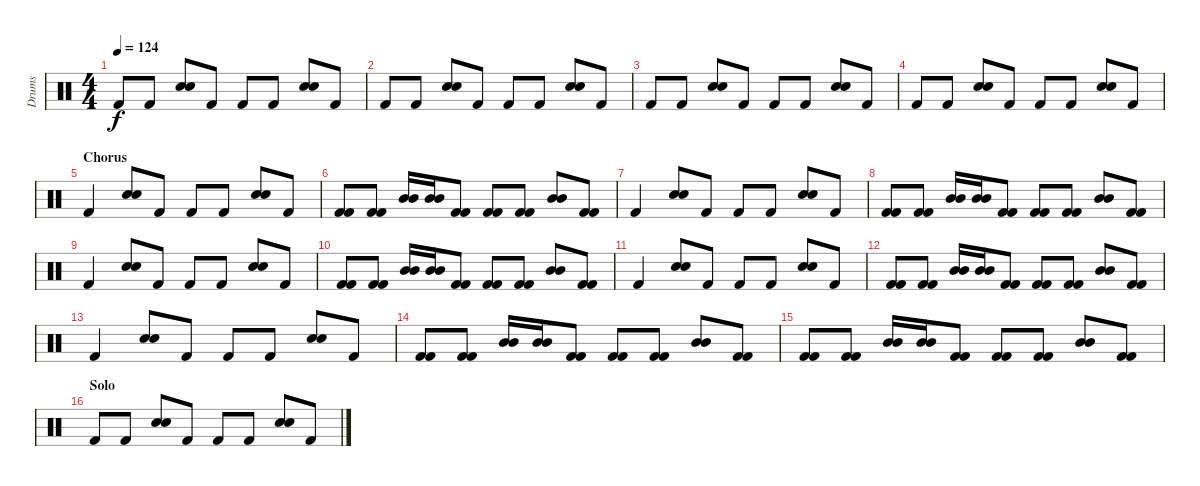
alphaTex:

\track ("Drums" "Drums") {instrument percussion}
\staff {score}
\articulation defaults
\ts (4 4)
\tempo 124
\clef neutral
\ks c "Kick (hit) 2".8{dy f} "Kick (hit) 2".8
("Snare (hit) 2" "Snare (hit) 2").8 "Kick (hit) 2".8 "Kick (hit) 2".8 "Kick (hit) 2".8 ("Snare (hit) 2" "Snare (hit) 2").8 "Kick (hit) 2".8 |
"Kick (hit) 2".8 "Kick (hit) 2".8 ("Snare (hit) 2" "Snare (hit) 2").8 "Kick (hit) 2".8 "Kick (hit) 2".8 "Kick (hit) 2".8 ("Snare (hit) 2" "Snare (hit) 2").8 "Kick (hit) 2".8 |
"Kick (hit) 2".8 "Kick (hit) 2".8 ("Snare (hit) 2" "Snare (hit) 2").8 "Kick (hit) 2".8 "Kick (hit) 2".8 "Kick (hit) 2".8 ("Snare (hit) 2" "Snare (hit) 2").8 "Kick (hit) 2".8 |
"Kick (hit) 2".8 "Kick (hit) 2".8 ("Snare (hit) 2" "Snare (hit) 2").8 "Kick (hit) 2".8 "Kick (hit) 2".8 "Kick (hit) 2".8 ("Snare (hit) 2" "Snare (hit) 2").8 "Kick (hit) 2".8 |
\section ("" "Chorus")
"Kick (hit) 2".4 ("Snare (hit) 2" "Snare (hit) 2").8 "Kick (hit) 2".8 "Kick (hit) 2".8 "Kick (hit) 2".8 ("Snare (hit) 2" "Snare (hit) 2").8 "Kick (hit) 2".8 |
("Kick (hit) 2" "Kick (hit) 2").8 ("Kick (hit) 2" "Kick (hit) 2").8 ("Mid Tom (hit)" "Mid Tom (hit)").16 ("Mid Tom (hit)" "Mid Tom (hit)").16 ("Kick (hit) 2" "Kick (hit) 2").8 ("Kick (hit) 2" "Kick (hit) 2").8 ("Kick (hit) 2" "Kick (hit) 2").8 ("Mid Tom (hit)" "Mid Tom (hit)").8 ("Kick (hit) 2" "Kick (hit) 2").8 |
"Kick (hit) 2".4 ("Snare (hit) 2" "Snare (hit) 2").8 "Kick (hit) 2".8 "Kick (hit) 2".8 "Kick (hit) 2".8 ("Snare (hit) 2" "Snare (hit) 2").8 "Kick (hit) 2".8 |
("Kick (hit) 2" "Kick (hit) 2").8 ("Kick (hit) 2" "Kick (hit) 2").8 ("Mid Tom (hit)" "Mid Tom (hit)").16 ("Mid Tom (hit)" "Mid Tom (hit)").16 ("Kick (hit) 2" "Kick (hit) 2").8 ("Kick (hit) 2" "Kick (hit) 2").8 ("Kick (hit) 2" "Kick (hit) 2").8 ("Mid Tom (hit)" "Mid Tom (hit)").8 ("Kick (hit) 2" "Kick (hit) 2").8 |
"Kick (hit) 2".4 ("Snare (hit) 2" "Snare (hit) 2").8 "Kick (hit) 2".8 "Kick (hit) 2".8 "Kick (hit) 2".8 ("Snare (hit) 2" "Snare (hit) 2").8 "Kick (hit) 2".8 |
("Kick (hit) 2" "Kick (hit) 2").8 ("Kick (hit) 2" "Kick (hit) 2").8 ("Mid Tom (hit)" "Mid Tom (hit)").16 ("Mid Tom (hit)" "Mid Tom (hit)").16 ("Kick (hit) 2" "Kick (hit) 2").8 ("Kick (hit) 2" "Kick (hit) 2").8 ("Kick (hit) 2" "Kick (hit) 2").8 ("Mid Tom (hit)" "Mid Tom (hit)").8 ("Kick (hit) 2" "Kick (hit) 2").8 |
"Kick (hit) 2".4 ("Snare (hit) 2" "Snare (hit) 2").8 "Kick (hit) 2".8 "Kick (hit) 2".8 "Kick (hit) 2".8 ("Snare (hit) 2" "Snare (hit) 2").8 "Kick (hit) 2".8 |
("Kick (hit) 2" "Kick (hit) 2").8 ("Kick (hit) 2" "Kick (hit) 2").8 ("Mid Tom (hit)" "Mid Tom (hit)").16 ("Mid Tom (hit)" "Mid Tom (hit)").16 ("Kick (hit) 2" "Kick (hit) 2").8 ("Kick (hit) 2" "Kick (hit) 2").8 ("Kick (hit) 2" "Kick (hit) 2").8 ("Mid Tom (hit)" "Mid Tom (hit)").8 ("Kick (hit) 2" "Kick (hit) 2").8 |
"Kick (hit) 2".4 ("Snare (hit) 2" "Snare (hit) 2").8 "Kick (hit) 2".8 "Kick (hit) 2".8 "Kick (hit) 2".8 ("Snare (hit) 2" "Snare (hit) 2").8 "Kick (hit) 2".8 |
("Kick (hit) 2" "Kick (hit) 2").8 ("Kick (hit) 2" "Kick (hit) 2").8 ("Mid Tom (hit)" "Mid Tom (hit)").16 ("Mid Tom (hit)" "Mid Tom (hit)").16 ("Kick (hit) 2" "Kick (hit) 2").8 ("Kick (hit) 2" "Kick (hit) 2").8 ("Kick (hit) 2" "Kick (hit) 2").8 ("Mid Tom (hit)" "Mid Tom (hit)").8 ("Kick (hit) 2" "Kick (hit) 2").8 |
("Kick (hit) 2" "Kick (hit) 2").8 ("Kick (hit) 2" "Kick (hit) 2").8 ("Mid Tom (hit)" "Mid Tom (hit)").16 ("Mid Tom (hit)" "Mid Tom (hit)").16 ("Kick (hit) 2" "Kick (hit) 2").8 ("Kick (hit) 2" "Kick (hit) 2").8 ("Kick (hit) 2" "Kick (hit) 2").8 ("Mid Tom (hit)" "Mid Tom (hit)").8 ("Kick (hit) 2" "Kick (hit) 2").8 |
\section ("" "Solo")
"Kick (hit) 2".8 "Kick (hit) 2".8 ("Snare (hit) 2" "Snare (hit) 2").8 "Kick (hit) 2".8 "Kick (hit) 2".8 "Kick (hit) 2".8 ("Snare (hit) 2" "Snare (hit) 2").8 "Kick (hit) 2".8
